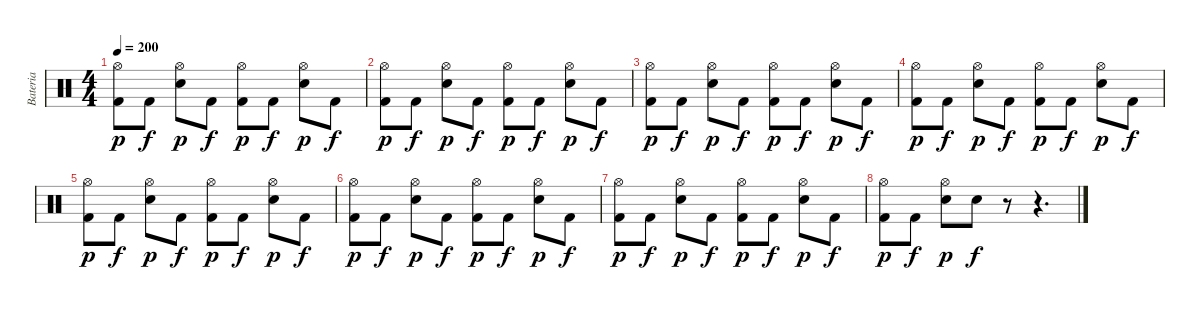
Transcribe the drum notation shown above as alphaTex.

\track ("Bateria" "Bateria") {instrument percussion}
\staff {score}
\articulation defaults
\ts (4 4)
\tempo 200
\clef neutral
\ks c
("Kick (hit) 2" "Hi-Hat (open)").8{dy p} "Kick (hit) 2".8{dy f} ("Electric Snare (hit)" "Hi-Hat (open)").8{dy p} "Kick (hit) 2".8{dy f} ("Kick (hit) 2" "Hi-Hat (open)").8{dy p} "Kick (hit) 2".8{dy f} ("Electric Snare (hit)" "Hi-Hat (open)").8{dy p} "Kick (hit) 2".8{dy f} |
("Kick (hit) 2" "Hi-Hat (open)").8{dy p} "Kick (hit) 2".8{dy f} ("Electric Snare (hit)" "Hi-Hat (open)").8{dy p} "Kick (hit) 2".8{dy f} ("Kick (hit) 2" "Hi-Hat (open)").8{dy p} "Kick (hit) 2".8{dy f} ("Electric Snare (hit)" "Hi-Hat (open)").8{dy p} "Kick (hit) 2".8{dy f} |
("Kick (hit) 2" "Hi-Hat (open)").8{dy p} "Kick (hit) 2".8{dy f} ("Electric Snare (hit)" "Hi-Hat (open)").8{dy p} "Kick (hit) 2".8{dy f} ("Kick (hit) 2" "Hi-Hat (open)").8{dy p} "Kick (hit) 2".8{dy f} ("Electric Snare (hit)" "Hi-Hat (open)").8{dy p} "Kick (hit) 2".8{dy f} |
("Kick (hit) 2" "Hi-Hat (open)").8{dy p} "Kick (hit) 2".8{dy f} ("Electric Snare (hit)" "Hi-Hat (open)").8{dy p} "Kick (hit) 2".8{dy f} ("Kick (hit) 2" "Hi-Hat (open)").8{dy p} "Kick (hit) 2".8{dy f} ("Electric Snare (hit)" "Hi-Hat (open)").8{dy p} "Kick (hit) 2".8{dy f} |
("Kick (hit) 2" "Hi-Hat (open)").8{dy p} "Kick (hit) 2".8{dy f} ("Electric Snare (hit)" "Hi-Hat (open)").8{dy p} "Kick (hit) 2".8{dy f} ("Kick (hit) 2" "Hi-Hat (open)").8{dy p} "Kick (hit) 2".8{dy f} ("Electric Snare (hit)" "Hi-Hat (open)").8{dy p} "Kick (hit) 2".8{dy f} |
("Kick (hit) 2" "Hi-Hat (open)").8{dy p} "Kick (hit) 2".8{dy f} ("Electric Snare (hit)" "Hi-Hat (open)").8{dy p} "Kick (hit) 2".8{dy f} ("Kick (hit) 2" "Hi-Hat (open)").8{dy p} "Kick (hit) 2".8{dy f} ("Electric Snare (hit)" "Hi-Hat (open)").8{dy p} "Kick (hit) 2".8{dy f} |
("Kick (hit) 2" "Hi-Hat (open)").8{dy p} "Kick (hit) 2".8{dy f} ("Electric Snare (hit)" "Hi-Hat (open)").8{dy p} "Kick (hit) 2".8{dy f} ("Kick (hit) 2" "Hi-Hat (open)").8{dy p} "Kick (hit) 2".8{dy f} ("Electric Snare (hit)" "Hi-Hat (open)").8{dy p} "Kick (hit) 2".8{dy f} |
("Kick (hit) 2" "Hi-Hat (open)").8{dy p} "Kick (hit) 2".8{dy f} ("Electric Snare (hit)" "Hi-Hat (open)").8{dy p} "Electric Snare (hit)".8{dy f} r.8 r.4{d}
